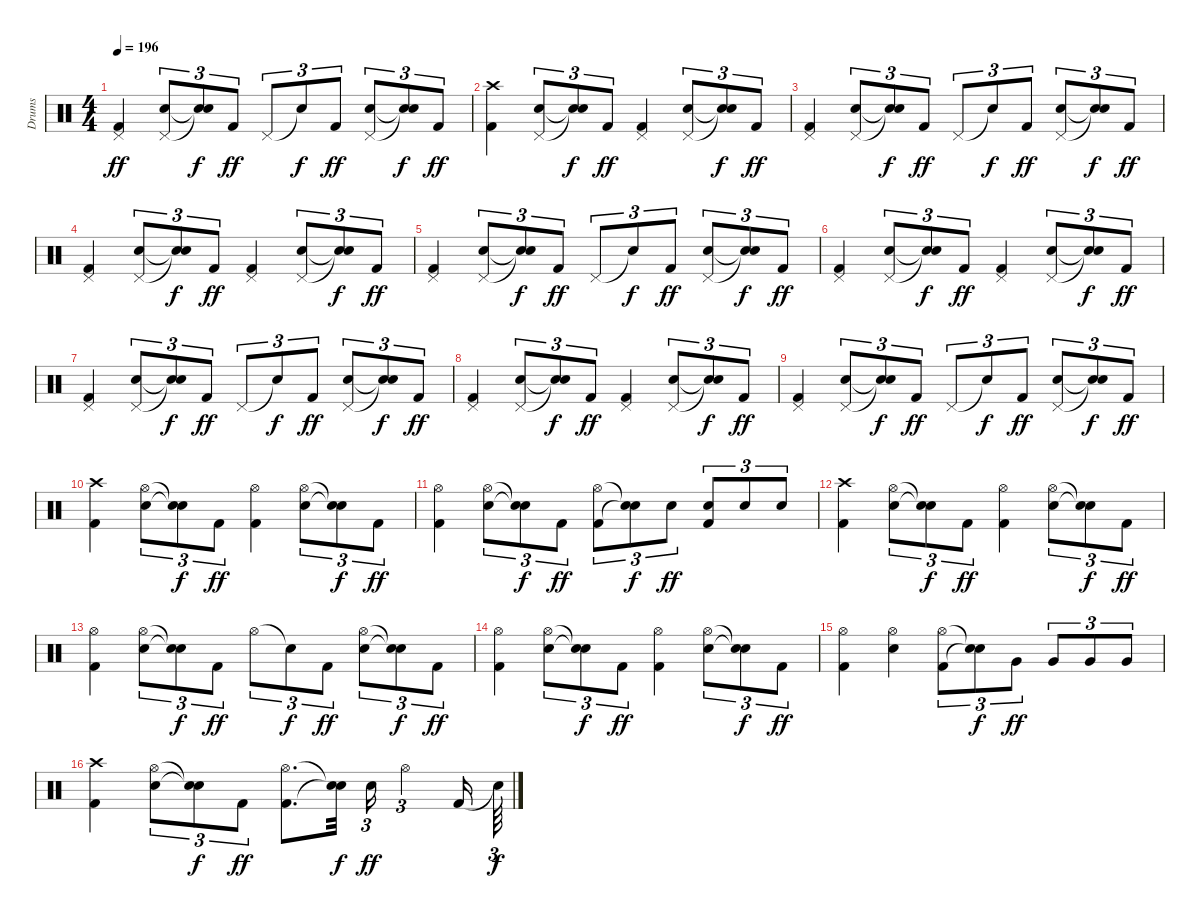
\track ("Drums" "Drums") {instrument percussion}
\staff {score}
\articulation defaults
\ts (4 4)
\tempo 196
\clef neutral
\ks c
("Pedal Hi-Hat (hit)" "Kick (hit) 2").4{dy ff} ("Pedal Hi-Hat (hit)" "Electric Snare (hit)").8{tu (3 2)} ("Snare (hit)"{t} "Snare (hit)"{t}).8{tu (3 2) dy f} "Kick (hit) 2".8{tu (3 2) dy ff} "Pedal Hi-Hat (hit)".8{tu (3 2)} "Snare (hit)"{t}.8{tu (3 2) dy f} "Kick (hit) 2".8{tu (3 2) dy ff} ("Pedal Hi-Hat (hit)" "Electric Snare (hit)").8{tu (3 2)} ("Snare (hit)"{t} "Snare (hit)"{t}).8{tu (3 2) dy f} "Kick (hit) 2".8{tu (3 2) dy ff} |
("Crash high (hit)" "Kick (hit) 2").4 ("Pedal Hi-Hat (hit)" "Electric Snare (hit)").8{tu (3 2)} ("Snare (hit)"{t} "Snare (hit)"{t}).8{tu (3 2) dy f} "Kick (hit) 2".8{tu (3 2) dy ff} ("Pedal Hi-Hat (hit)" "Kick (hit) 2").4 ("Pedal Hi-Hat (hit)" "Electric Snare (hit)").8{tu (3 2)} ("Snare (hit)"{t} "Snare (hit)"{t}).8{tu (3 2) dy f} "Kick (hit) 2".8{tu (3 2) dy ff} |
("Pedal Hi-Hat (hit)" "Kick (hit) 2").4 ("Pedal Hi-Hat (hit)" "Electric Snare (hit)").8{tu (3 2)} ("Snare (hit)"{t} "Snare (hit)"{t}).8{tu (3 2) dy f} "Kick (hit) 2".8{tu (3 2) dy ff} "Pedal Hi-Hat (hit)".8{tu (3 2)} "Snare (hit)"{t}.8{tu (3 2) dy f} "Kick (hit) 2".8{tu (3 2) dy ff} ("Pedal Hi-Hat (hit)" "Electric Snare (hit)").8{tu (3 2)} ("Snare (hit)"{t} "Snare (hit)"{t}).8{tu (3 2) dy f} "Kick (hit) 2".8{tu (3 2) dy ff} |
("Pedal Hi-Hat (hit)" "Kick (hit) 2").4 ("Pedal Hi-Hat (hit)" "Electric Snare (hit)").8{tu (3 2)} ("Snare (hit)"{t} "Snare (hit)"{t}).8{tu (3 2) dy f} "Kick (hit) 2".8{tu (3 2) dy ff} ("Pedal Hi-Hat (hit)" "Kick (hit) 2").4 ("Pedal Hi-Hat (hit)" "Electric Snare (hit)").8{tu (3 2)} ("Snare (hit)"{t} "Snare (hit)"{t}).8{tu (3 2) dy f} "Kick (hit) 2".8{tu (3 2) dy ff} |
("Pedal Hi-Hat (hit)" "Kick (hit) 2").4 ("Pedal Hi-Hat (hit)" "Electric Snare (hit)").8{tu (3 2)} ("Snare (hit)"{t} "Snare (hit)"{t}).8{tu (3 2) dy f} "Kick (hit) 2".8{tu (3 2) dy ff} "Pedal Hi-Hat (hit)".8{tu (3 2)} "Snare (hit)"{t}.8{tu (3 2) dy f} "Kick (hit) 2".8{tu (3 2) dy ff} ("Pedal Hi-Hat (hit)" "Electric Snare (hit)").8{tu (3 2)} ("Snare (hit)"{t} "Snare (hit)"{t}).8{tu (3 2) dy f} "Kick (hit) 2".8{tu (3 2) dy ff} |
("Pedal Hi-Hat (hit)" "Kick (hit) 2").4 ("Pedal Hi-Hat (hit)" "Electric Snare (hit)").8{tu (3 2)} ("Snare (hit)"{t} "Snare (hit)"{t}).8{tu (3 2) dy f} "Kick (hit) 2".8{tu (3 2) dy ff} ("Pedal Hi-Hat (hit)" "Kick (hit) 2").4 ("Pedal Hi-Hat (hit)" "Electric Snare (hit)").8{tu (3 2)} ("Snare (hit)"{t} "Snare (hit)"{t}).8{tu (3 2) dy f} "Kick (hit) 2".8{tu (3 2) dy ff} |
("Pedal Hi-Hat (hit)" "Kick (hit) 2").4 ("Pedal Hi-Hat (hit)" "Electric Snare (hit)").8{tu (3 2)} ("Snare (hit)"{t} "Snare (hit)"{t}).8{tu (3 2) dy f} "Kick (hit) 2".8{tu (3 2) dy ff} "Pedal Hi-Hat (hit)".8{tu (3 2)} "Snare (hit)"{t}.8{tu (3 2) dy f} "Kick (hit) 2".8{tu (3 2) dy ff} ("Pedal Hi-Hat (hit)" "Electric Snare (hit)").8{tu (3 2)} ("Snare (hit)"{t} "Snare (hit)"{t}).8{tu (3 2) dy f} "Kick (hit) 2".8{tu (3 2) dy ff} |
("Pedal Hi-Hat (hit)" "Kick (hit) 2").4 ("Pedal Hi-Hat (hit)" "Electric Snare (hit)").8{tu (3 2)} ("Snare (hit)"{t} "Snare (hit)"{t}).8{tu (3 2) dy f} "Kick (hit) 2".8{tu (3 2) dy ff} ("Pedal Hi-Hat (hit)" "Kick (hit) 2").4 ("Pedal Hi-Hat (hit)" "Electric Snare (hit)").8{tu (3 2)} ("Snare (hit)"{t} "Snare (hit)"{t}).8{tu (3 2) dy f} "Kick (hit) 2".8{tu (3 2) dy ff} |
("Pedal Hi-Hat (hit)" "Kick (hit) 2").4 ("Pedal Hi-Hat (hit)" "Electric Snare (hit)").8{tu (3 2)} ("Snare (hit)"{t} "Snare (hit)"{t}).8{tu (3 2) dy f} "Kick (hit) 2".8{tu (3 2) dy ff} "Pedal Hi-Hat (hit)".8{tu (3 2)} "Snare (hit)"{t}.8{tu (3 2) dy f} "Kick (hit) 2".8{tu (3 2) dy ff} ("Pedal Hi-Hat (hit)" "Electric Snare (hit)").8{tu (3 2)} ("Snare (hit)"{t} "Snare (hit)"{t}).8{tu (3 2) dy f} "Kick (hit) 2".8{tu (3 2) dy ff} |
("Crash high (hit)" "Kick (hit) 2").4 ("Hi-Hat (open)" "Electric Snare (hit)").8{tu (3 2)} ("Snare (hit)"{t} "Snare (hit)"{t}).8{tu (3 2) dy f} "Kick (hit) 2".8{tu (3 2) dy ff} ("Hi-Hat (open)" "Kick (hit) 2").4 ("Hi-Hat (open)" "Electric Snare (hit)").8{tu (3 2)} ("Snare (hit)"{t} "Snare (hit)"{t}).8{tu (3 2) dy f} "Kick (hit) 2".8{tu (3 2) dy ff} |
("Hi-Hat (open)" "Kick (hit) 2").4 ("Hi-Hat (open)" "Electric Snare (hit)").8{tu (3 2)} ("Snare (hit)"{t} "Snare (hit)"{t}).8{tu (3 2) dy f} "Kick (hit) 2".8{tu (3 2) dy ff} ("Hi-Hat (open)" "Kick (hit) 2").8{tu (3 2)} ("Snare (hit)"{t} "Snare (hit)"{t}).8{tu (3 2) dy f} "Electric Snare (hit)".8{tu (3 2) dy ff} ("Electric Snare (hit)" "Kick (hit) 2").8{tu (3 2)} "Electric Snare (hit)".8{tu (3 2)} "Electric Snare (hit)".8{tu (3 2)} |
("Crash high (hit)" "Kick (hit) 2").4 ("Hi-Hat (open)" "Electric Snare (hit)").8{tu (3 2)} ("Snare (hit)"{t} "Snare (hit)"{t}).8{tu (3 2) dy f} "Kick (hit) 2".8{tu (3 2) dy ff} ("Hi-Hat (open)" "Kick (hit) 2").4 ("Hi-Hat (open)" "Electric Snare (hit)").8{tu (3 2)} ("Snare (hit)"{t} "Snare (hit)"{t}).8{tu (3 2) dy f} "Kick (hit) 2".8{tu (3 2) dy ff} |
("Hi-Hat (open)" "Kick (hit) 2").4 ("Hi-Hat (open)" "Electric Snare (hit)").8{tu (3 2)} ("Snare (hit)"{t} "Snare (hit)"{t}).8{tu (3 2) dy f} "Kick (hit) 2".8{tu (3 2) dy ff} "Hi-Hat (open)".8{tu (3 2)} "Snare (hit)"{t}.8{tu (3 2) dy f} "Kick (hit) 2".8{tu (3 2) dy ff} ("Hi-Hat (open)" "Electric Snare (hit)").8{tu (3 2)} ("Snare (hit)"{t} "Snare (hit)"{t}).8{tu (3 2) dy f} "Kick (hit) 2".8{tu (3 2) dy ff} |
("Hi-Hat (open)" "Kick (hit) 2").4 ("Hi-Hat (open)" "Electric Snare (hit)").8{tu (3 2)} ("Snare (hit)"{t} "Snare (hit)"{t}).8{tu (3 2) dy f} "Kick (hit) 2".8{tu (3 2) dy ff} ("Hi-Hat (open)" "Kick (hit) 2").4 ("Hi-Hat (open)" "Electric Snare (hit)").8{tu (3 2)} ("Snare (hit)"{t} "Snare (hit)"{t}).8{tu (3 2) dy f} "Kick (hit) 2".8{tu (3 2) dy ff} |
("Hi-Hat (open)" "Kick (hit) 2").4 ("Hi-Hat (open)" "Electric Snare (hit)").4 ("Kick (hit) 2" "Hi-Hat (open)").8{tu (3 2)} ("Snare (hit)"{t} "Snare (hit)"{t}).8{tu (3 2) dy f} "Very Low Tom (hit)".8{tu (3 2) dy ff} "Very Low Tom (hit)".8{tu (3 2)} "Very Low Tom (hit)".8{tu (3 2)} "Very Low Tom (hit)".8{tu (3 2)} |
("Crash high (hit)" "Kick (hit) 2").4 ("Hi-Hat (open)" "Electric Snare (hit)").8{tu (3 2)} ("Snare (hit)"{t} "Snare (hit)"{t}).8{tu (3 2) dy f} "Kick (hit) 2".8{tu (3 2) dy ff} ("Hi-Hat (open)" "Kick (hit) 2").8{d} ("Snare (hit)"{t} "Snare (hit)"{t}).32{dy f beam splitsecondary} "Electric Snare (hit)".16{tu (3 2) dy ff} "Hi-Hat (open)".4{tu (3 2)} "Kick (hit) 2".16 "Snare (hit)"{t}.64{tu (3 2) dy f}
